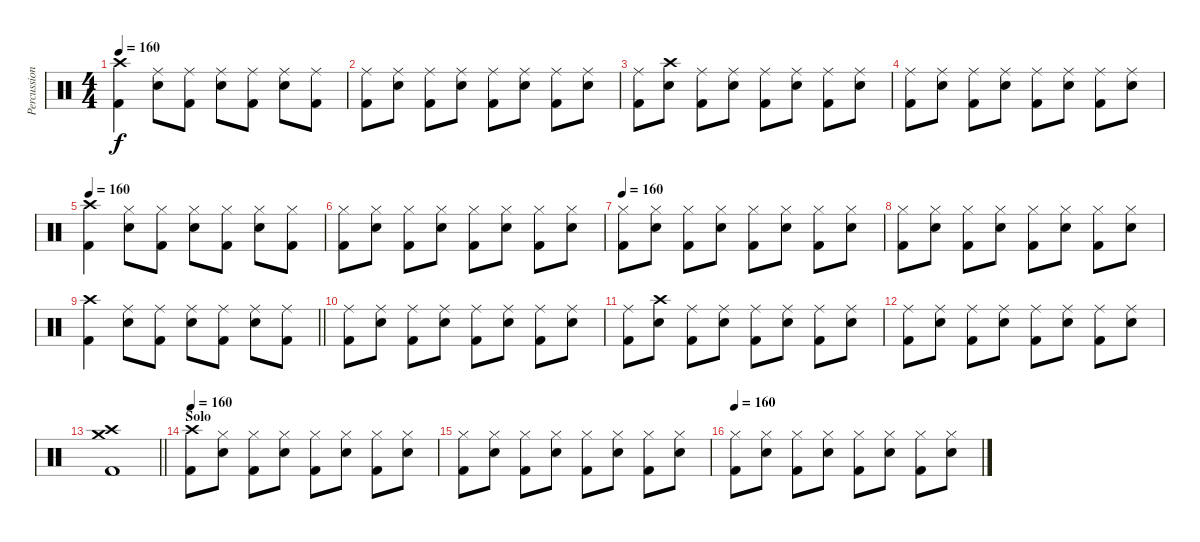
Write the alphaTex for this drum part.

\track ("Percussion" "Percussion") {instrument percussion}
\staff {score}
\articulation defaults
\ts (4 4)
\tempo 160
\clef neutral
\ks c
("Crash high (hit)" "Kick (hit) 2").4{dy f} ("Ride (middle)" "Snare (hit) 2").8 ("Ride (middle)" "Kick (hit) 2").8 ("Ride (middle)" "Snare (hit) 2").8 ("Ride (middle)" "Kick (hit) 2").8 ("Ride (middle)" "Snare (hit) 2").8 ("Ride (middle)" "Kick (hit) 2").8 |
("Ride (middle)" "Kick (hit) 2").8 ("Ride (middle)" "Snare (hit) 2").8 ("Ride (middle)" "Kick (hit) 2").8 ("Ride (middle)" "Snare (hit) 2").8 ("Ride (middle)" "Kick (hit) 2").8 ("Ride (middle)" "Snare (hit) 2").8 ("Ride (middle)" "Kick (hit) 2").8 ("Ride (middle)" "Snare (hit) 2").8 |
("Ride (middle)" "Kick (hit) 2").8 ("Crash high (hit)" "Snare (hit) 2").8 ("Ride (middle)" "Kick (hit) 2").8 ("Ride (middle)" "Snare (hit) 2").8 ("Ride (middle)" "Kick (hit) 2").8 ("Ride (middle)" "Snare (hit) 2").8 ("Ride (middle)" "Kick (hit) 2").8 ("Ride (middle)" "Snare (hit) 2").8 |
("Ride (middle)" "Kick (hit) 2").8 ("Ride (middle)" "Snare (hit) 2").8 ("Ride (middle)" "Kick (hit) 2").8 ("Ride (middle)" "Snare (hit) 2").8 ("Ride (middle)" "Kick (hit) 2").8 ("Ride (middle)" "Snare (hit) 2").8 ("Ride (middle)" "Kick (hit) 2").8 ("Ride (middle)" "Snare (hit) 2").8 |
\tempo 160
("Crash high (hit)" "Kick (hit) 2").4 ("Hi-Hat (closed)" "Snare (hit) 2").8 ("Hi-Hat (closed)" "Kick (hit) 2").8 ("Hi-Hat (closed)" "Snare (hit) 2").8 ("Hi-Hat (closed)" "Kick (hit) 2").8 ("Hi-Hat (closed)" "Snare (hit) 2").8 ("Hi-Hat (closed)" "Kick (hit) 2").8 |
("Hi-Hat (closed)" "Kick (hit) 2").8 ("Hi-Hat (closed)" "Snare (hit) 2").8 ("Hi-Hat (closed)" "Kick (hit) 2").8 ("Hi-Hat (closed)" "Snare (hit) 2").8 ("Hi-Hat (closed)" "Kick (hit) 2").8 ("Hi-Hat (closed)" "Snare (hit) 2").8 ("Hi-Hat (closed)" "Kick (hit) 2").8 ("Hi-Hat (closed)" "Snare (hit) 2").8 |
\tempo 160
("Hi-Hat (closed)" "Kick (hit) 2").8 ("Hi-Hat (closed)" "Snare (hit) 2").8 ("Hi-Hat (closed)" "Kick (hit) 2").8 ("Hi-Hat (closed)" "Snare (hit) 2").8 ("Hi-Hat (closed)" "Kick (hit) 2").8 ("Hi-Hat (closed)" "Snare (hit) 2").8 ("Hi-Hat (closed)" "Kick (hit) 2").8 ("Hi-Hat (closed)" "Snare (hit) 2").8 |
("Hi-Hat (closed)" "Kick (hit) 2").8 ("Hi-Hat (closed)" "Snare (hit) 2").8 ("Hi-Hat (closed)" "Kick (hit) 2").8 ("Hi-Hat (closed)" "Snare (hit) 2").8 ("Hi-Hat (closed)" "Kick (hit) 2").8 ("Hi-Hat (closed)" "Snare (hit) 2").8 ("Hi-Hat (closed)" "Kick (hit) 2").8 ("Hi-Hat (closed)" "Snare (hit) 2").8 |
\barLineRight lightlight
("Crash high (hit)" "Kick (hit) 2").4 ("Ride (middle)" "Snare (hit) 2").8 ("Ride (middle)" "Kick (hit) 2").8 ("Ride (middle)" "Snare (hit) 2").8 ("Ride (middle)" "Kick (hit) 2").8 ("Ride (middle)" "Snare (hit) 2").8 ("Ride (middle)" "Kick (hit) 2").8 |
("Ride (middle)" "Kick (hit) 2").8 ("Ride (middle)" "Snare (hit) 2").8 ("Ride (middle)" "Kick (hit) 2").8 ("Ride (middle)" "Snare (hit) 2").8 ("Ride (middle)" "Kick (hit) 2").8 ("Ride (middle)" "Snare (hit) 2").8 ("Ride (middle)" "Kick (hit) 2").8 ("Ride (middle)" "Snare (hit) 2").8 |
("Ride (middle)" "Kick (hit) 2").8 ("Crash high (hit)" "Snare (hit) 2").8 ("Ride (middle)" "Kick (hit) 2").8 ("Ride (middle)" "Snare (hit) 2").8 ("Ride (middle)" "Kick (hit) 2").8 ("Ride (middle)" "Snare (hit) 2").8 ("Ride (middle)" "Kick (hit) 2").8 ("Ride (middle)" "Snare (hit) 2").8 |
("Ride (middle)" "Kick (hit) 2").8 ("Ride (middle)" "Snare (hit) 2").8 ("Ride (middle)" "Kick (hit) 2").8 ("Ride (middle)" "Snare (hit) 2").8 ("Ride (middle)" "Kick (hit) 2").8 ("Ride (middle)" "Snare (hit) 2").8 ("Ride (middle)" "Kick (hit) 2").8 ("Ride (middle)" "Snare (hit) 2").8 |
\barLineRight lightlight
("Crash medium (hit)" "Crash high (hit)" "Kick (hit) 2").1 |
\section ("" "Solo")
\tempo 160
("Crash high (hit)" "Kick (hit) 2").8 ("Hi-Hat (closed)" "Snare (hit) 2").8 ("Hi-Hat (closed)" "Kick (hit) 2").8 ("Hi-Hat (closed)" "Snare (hit) 2").8 ("Hi-Hat (closed)" "Kick (hit) 2").8 ("Hi-Hat (closed)" "Snare (hit) 2").8 ("Hi-Hat (closed)" "Kick (hit) 2").8 ("Hi-Hat (closed)" "Snare (hit) 2").8 |
("Hi-Hat (closed)" "Kick (hit) 2").8 ("Hi-Hat (closed)" "Snare (hit) 2").8 ("Hi-Hat (closed)" "Kick (hit) 2").8 ("Hi-Hat (closed)" "Snare (hit) 2").8 ("Hi-Hat (closed)" "Kick (hit) 2").8 ("Hi-Hat (closed)" "Snare (hit) 2").8 ("Hi-Hat (closed)" "Kick (hit) 2").8 ("Hi-Hat (closed)" "Snare (hit) 2").8 |
\tempo 160
("Hi-Hat (closed)" "Kick (hit) 2").8 ("Hi-Hat (closed)" "Snare (hit) 2").8 ("Hi-Hat (closed)" "Kick (hit) 2").8 ("Hi-Hat (closed)" "Snare (hit) 2").8 ("Hi-Hat (closed)" "Kick (hit) 2").8 ("Hi-Hat (closed)" "Snare (hit) 2").8 ("Hi-Hat (closed)" "Kick (hit) 2").8 ("Hi-Hat (closed)" "Snare (hit) 2").8
